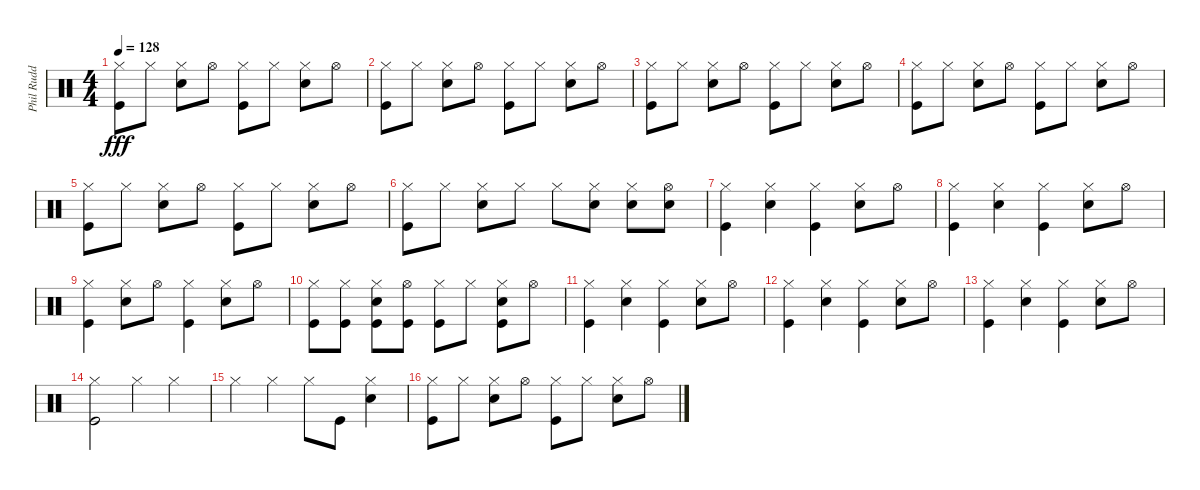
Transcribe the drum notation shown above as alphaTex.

\track ("Phil Rudd" "Phil Rudd") {instrument percussion}
\staff {score}
\articulation defaults
\ts (4 4)
\tempo 128
\clef neutral
\ks c
("Hi-Hat (closed)" "Kick (hit)").8{dy fff} "Hi-Hat (closed)".8 ("Hi-Hat (closed)" "Snare (hit) 2").8 "Hi-Hat (open)".8 ("Hi-Hat (closed)" "Kick (hit)").8 "Hi-Hat (closed)".8 ("Hi-Hat (closed)" "Snare (hit) 2").8 "Hi-Hat (open)".8 |
("Hi-Hat (closed)" "Kick (hit)").8 "Hi-Hat (closed)".8 ("Hi-Hat (closed)" "Snare (hit) 2").8 "Hi-Hat (open)".8 ("Hi-Hat (closed)" "Kick (hit)").8 "Hi-Hat (closed)".8 ("Hi-Hat (closed)" "Snare (hit) 2").8 "Hi-Hat (open)".8 |
("Hi-Hat (closed)" "Kick (hit)").8 "Hi-Hat (closed)".8 ("Hi-Hat (closed)" "Snare (hit) 2").8 "Hi-Hat (open)".8 ("Hi-Hat (closed)" "Kick (hit)").8 "Hi-Hat (closed)".8 ("Hi-Hat (closed)" "Snare (hit) 2").8 "Hi-Hat (open)".8 |
("Hi-Hat (closed)" "Kick (hit)").8 "Hi-Hat (closed)".8 ("Hi-Hat (closed)" "Snare (hit) 2").8 "Hi-Hat (open)".8 ("Hi-Hat (closed)" "Kick (hit)").8 "Hi-Hat (closed)".8 ("Hi-Hat (closed)" "Snare (hit) 2").8 "Hi-Hat (open)".8 |
("Hi-Hat (closed)" "Kick (hit)").8 "Hi-Hat (closed)".8 ("Hi-Hat (closed)" "Snare (hit) 2").8 "Hi-Hat (open)".8 ("Hi-Hat (closed)" "Kick (hit)").8 "Hi-Hat (closed)".8 ("Hi-Hat (closed)" "Snare (hit) 2").8 "Hi-Hat (open)".8 |
("Hi-Hat (closed)" "Kick (hit)").8 "Hi-Hat (closed)".8 ("Hi-Hat (closed)" "Snare (hit) 2").8 "Hi-Hat (closed)".8 "Hi-Hat (closed)".8 ("Hi-Hat (closed)" "Snare (hit) 2").8 ("Hi-Hat (closed)" "Snare (hit) 2").8 ("Hi-Hat (open)" "Snare (hit) 2").8 |
("Hi-Hat (closed)" "Kick (hit)").4 ("Hi-Hat (closed)" "Snare (hit) 2").4 ("Hi-Hat (closed)" "Kick (hit)").4 ("Hi-Hat (closed)" "Snare (hit) 2").8 "Hi-Hat (open)".8 |
("Hi-Hat (closed)" "Kick (hit)").4 ("Hi-Hat (closed)" "Snare (hit) 2").4 ("Hi-Hat (closed)" "Kick (hit)").4 ("Hi-Hat (closed)" "Snare (hit) 2").8 "Hi-Hat (open)".8 |
("Hi-Hat (closed)" "Kick (hit)").4 ("Hi-Hat (closed)" "Snare (hit) 2").8 "Hi-Hat (open)".8 ("Hi-Hat (closed)" "Kick (hit)").4 ("Hi-Hat (closed)" "Snare (hit) 2").8 "Hi-Hat (open)".8 |
("Hi-Hat (closed)" "Kick (hit)").8 ("Hi-Hat (closed)" "Kick (hit)").8 ("Hi-Hat (closed)" "Kick (hit)" "Snare (hit) 2").8 ("Hi-Hat (open)" "Kick (hit)").8 ("Hi-Hat (closed)" "Kick (hit)").8 "Hi-Hat (closed)".8 ("Hi-Hat (closed)" "Kick (hit)" "Snare (hit) 2").8 "Hi-Hat (open)".8 |
("Hi-Hat (closed)" "Kick (hit)").4 ("Hi-Hat (closed)" "Snare (hit) 2").4 ("Hi-Hat (closed)" "Kick (hit)").4 ("Hi-Hat (closed)" "Snare (hit) 2").8 "Hi-Hat (open)".8 |
("Hi-Hat (closed)" "Kick (hit)").4 ("Hi-Hat (closed)" "Snare (hit) 2").4 ("Hi-Hat (closed)" "Kick (hit)").4 ("Hi-Hat (closed)" "Snare (hit) 2").8 "Hi-Hat (open)".8 |
("Hi-Hat (closed)" "Kick (hit)").4 ("Hi-Hat (closed)" "Snare (hit) 2").4 ("Hi-Hat (closed)" "Kick (hit)").4 ("Hi-Hat (closed)" "Snare (hit) 2").8 "Hi-Hat (open)".8 |
("Hi-Hat (closed)" "Kick (hit)").2 "Hi-Hat (closed)".4 "Hi-Hat (closed)".4 |
"Hi-Hat (closed)".4 "Hi-Hat (closed)".4 "Hi-Hat (closed)".8 "Kick (hit)".8 ("Hi-Hat (closed)" "Snare (hit) 2").4 |
("Hi-Hat (closed)" "Kick (hit)").8 "Hi-Hat (closed)".8 ("Hi-Hat (closed)" "Snare (hit) 2").8 "Hi-Hat (open)".8 ("Hi-Hat (closed)" "Kick (hit)").8 "Hi-Hat (closed)".8 ("Hi-Hat (closed)" "Snare (hit) 2").8 "Hi-Hat (open)".8
